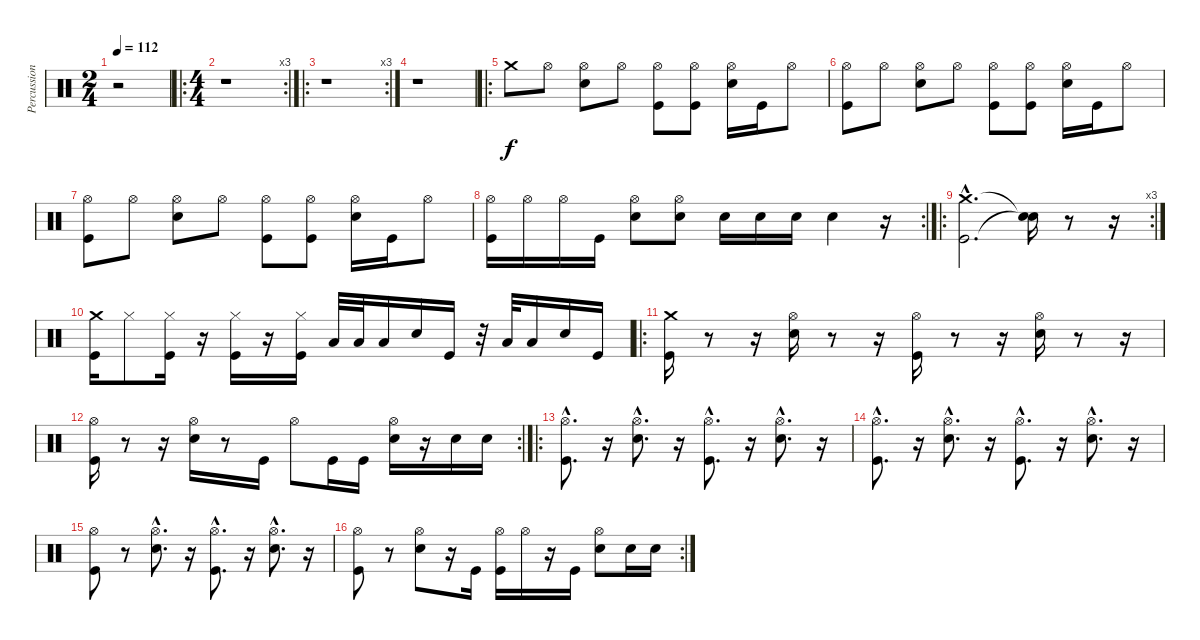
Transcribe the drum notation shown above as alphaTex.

\track ("Percussion" "Percussion") {instrument percussion}
\staff {score}
\articulation defaults
\ts (2 4)
\tempo 112
\clef neutral
\ks c
r.2{dy f} |
\ro
\rc 3
\ts (4 4)
r.1 |
\ro
\rc 3
r.1 |
r.1 |
\ro "Crash medium (hit)".8 "Hi-Hat (open)".8
("Hi-Hat (open)" "Electric Snare (hit)").8 "Hi-Hat (open)".8 ("Hi-Hat (open)" "Kick (hit)").8 ("Hi-Hat (open)" "Kick (hit)").8 ("Hi-Hat (open)" "Electric Snare (hit)").16 "Kick (hit)".16 "Hi-Hat (open)".8 |
("Hi-Hat (open)" "Kick (hit)").8 "Hi-Hat (open)".8 ("Hi-Hat (open)" "Electric Snare (hit)").8 "Hi-Hat (open)".8 ("Hi-Hat (open)" "Kick (hit)").8 ("Hi-Hat (open)" "Kick (hit)").8 ("Hi-Hat (open)" "Electric Snare (hit)").16 "Kick (hit)".16 "Hi-Hat (open)".8 |
("Hi-Hat (open)" "Kick (hit)").8 "Hi-Hat (open)".8 ("Hi-Hat (open)" "Electric Snare (hit)").8 "Hi-Hat (open)".8 ("Hi-Hat (open)" "Kick (hit)").8 ("Hi-Hat (open)" "Kick (hit)").8 ("Hi-Hat (open)" "Electric Snare (hit)").16 "Kick (hit)".16 "Hi-Hat (open)".8 |
\rc 2
("Hi-Hat (open)" "Kick (hit)").16 "Hi-Hat (open)".16 "Hi-Hat (open)".16 "Kick (hit)".16 ("Hi-Hat (open)" "Electric Snare (hit)").8 ("Hi-Hat (open)" "Electric Snare (hit)").8 "Electric Snare (hit)".16 "Electric Snare (hit)".16 "Electric Snare (hit)".16 "Electric Snare (hit)".4 r.16 |
\ro
\rc 3
("Kick (hit)"{hac} "Crash medium (hit)"{hac}).2{d} ("Snare (hit)"{t} "Snare (hit)"{t}).16 r.8 r.16 |
("Kick (hit)" "Crash medium (hit)").16 "Hi-Hat (closed)".8 ("Kick (hit)" "Hi-Hat (closed)").16 r.16 ("Kick (hit)" "Hi-Hat (closed)").16 r.16 ("Kick (hit)" "Hi-Hat (closed)").16 "Low Tom (hit)".32 "Low Tom (hit)".32 "Low Tom (hit)".16 "Electric Snare (hit)".16 "Kick (hit)".16 r.32 "Low Tom (hit)".32 "Low Tom (hit)".16 "Electric Snare (hit)".16 "Kick (hit)".16 |
\ro
("Kick (hit)" "Crash medium (hit)").16 r.8 r.16 ("Hi-Hat (open)" "Electric Snare (hit)").16 r.8 r.16 ("Hi-Hat (open)" "Kick (hit)").16 r.8 r.16 ("Hi-Hat (open)" "Electric Snare (hit)").16 r.8 r.16 |
\rc 2
("Hi-Hat (open)" "Kick (hit)").16 r.8 r.16 ("Hi-Hat (open)" "Electric Snare (hit)").16 r.8 "Kick (hit)".16 "Hi-Hat (open)".8 "Kick (hit)".16 "Kick (hit)".16 ("Hi-Hat (open)" "Electric Snare (hit)").16 r.16 "Electric Snare (hit)".16 "Electric Snare (hit)".16 |
\ro
("Hi-Hat (open)"{hac} "Kick (hit)"{hac}).8{d} r.16 ("Hi-Hat (open)"{hac} "Electric Snare (hit)"{hac}).8{d} r.16 ("Hi-Hat (open)"{hac} "Kick (hit)"{hac}).8{d} r.16 ("Hi-Hat (open)"{hac} "Electric Snare (hit)"{hac}).8{d} r.16 |
("Hi-Hat (open)"{hac} "Kick (hit)"{hac}).8{d} r.16 ("Hi-Hat (open)"{hac} "Electric Snare (hit)"{hac}).8{d} r.16 ("Hi-Hat (open)"{hac} "Kick (hit)"{hac}).8{d} r.16 ("Hi-Hat (open)"{hac} "Electric Snare (hit)"{hac}).8{d} r.16 |
("Hi-Hat (open)" "Kick (hit)").8 r.8 ("Hi-Hat (open)"{hac} "Electric Snare (hit)"{hac}).8{d} r.16 ("Hi-Hat (open)"{hac} "Kick (hit)"{hac}).8{d} r.16 ("Hi-Hat (open)"{hac} "Electric Snare (hit)"{hac}).8{d} r.16 |
\rc 2
("Hi-Hat (open)" "Kick (hit)").8 r.8 ("Hi-Hat (open)" "Electric Snare (hit)").8 r.16 "Kick (hit)".16 ("Hi-Hat (open)" "Kick (hit)").16 "Hi-Hat (open)".16 r.16 "Kick (hit)".16 ("Hi-Hat (open)" "Electric Snare (hit)").8 "Electric Snare (hit)".16 "Electric Snare (hit)".16
